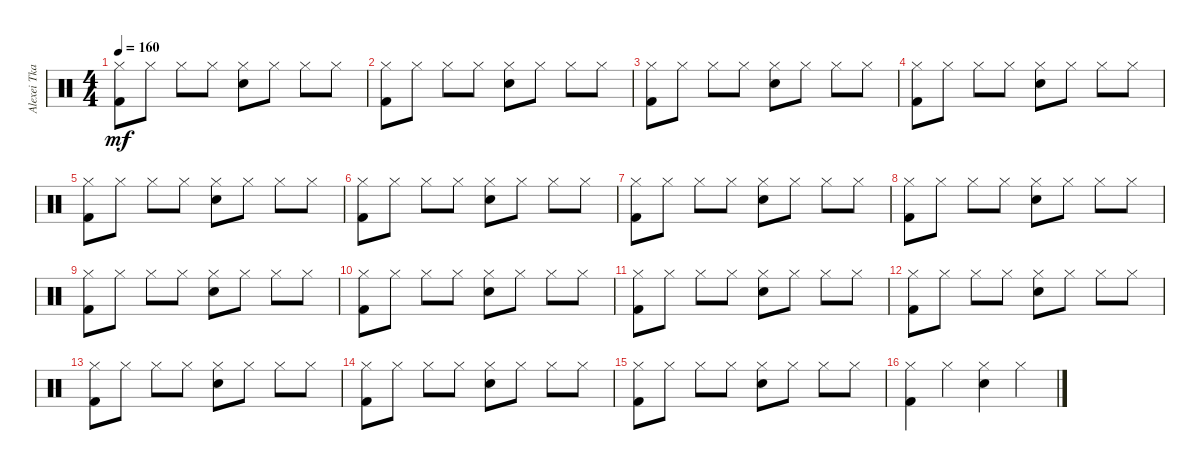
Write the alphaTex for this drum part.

\track ("Alexei Tkachevskiy " "Alexei Tka") {instrument percussion}
\staff {score}
\articulation defaults
\ts (4 4)
\tempo 160
\clef neutral
\ks c
("Hi-Hat (closed)" "Kick (hit) 2").8{dy mf} "Hi-Hat (closed)".8 "Hi-Hat (closed)".8 "Hi-Hat (closed)".8 ("Hi-Hat (closed)" "Snare (hit) 2").8 "Hi-Hat (closed)".8 "Hi-Hat (closed)".8 "Hi-Hat (closed)".8 |
("Hi-Hat (closed)" "Kick (hit) 2").8 "Hi-Hat (closed)".8 "Hi-Hat (closed)".8 "Hi-Hat (closed)".8 ("Hi-Hat (closed)" "Snare (hit) 2").8 "Hi-Hat (closed)".8 "Hi-Hat (closed)".8 "Hi-Hat (closed)".8 |
("Hi-Hat (closed)" "Kick (hit) 2").8 "Hi-Hat (closed)".8 "Hi-Hat (closed)".8 "Hi-Hat (closed)".8 ("Hi-Hat (closed)" "Snare (hit) 2").8 "Hi-Hat (closed)".8 "Hi-Hat (closed)".8 "Hi-Hat (closed)".8 |
("Hi-Hat (closed)" "Kick (hit) 2").8 "Hi-Hat (closed)".8 "Hi-Hat (closed)".8 "Hi-Hat (closed)".8 ("Hi-Hat (closed)" "Snare (hit) 2").8 "Hi-Hat (closed)".8 "Hi-Hat (closed)".8 "Hi-Hat (closed)".8 |
("Hi-Hat (closed)" "Kick (hit) 2").8 "Hi-Hat (closed)".8 "Hi-Hat (closed)".8 "Hi-Hat (closed)".8 ("Hi-Hat (closed)" "Snare (hit) 2").8 "Hi-Hat (closed)".8 "Hi-Hat (closed)".8 "Hi-Hat (closed)".8 |
("Hi-Hat (closed)" "Kick (hit) 2").8 "Hi-Hat (closed)".8 "Hi-Hat (closed)".8 "Hi-Hat (closed)".8 ("Hi-Hat (closed)" "Snare (hit) 2").8 "Hi-Hat (closed)".8 "Hi-Hat (closed)".8 "Hi-Hat (closed)".8 |
("Hi-Hat (closed)" "Kick (hit) 2").8 "Hi-Hat (closed)".8 "Hi-Hat (closed)".8 "Hi-Hat (closed)".8 ("Hi-Hat (closed)" "Snare (hit) 2").8 "Hi-Hat (closed)".8 "Hi-Hat (closed)".8 "Hi-Hat (closed)".8 |
("Hi-Hat (closed)" "Kick (hit) 2").8 "Hi-Hat (closed)".8 "Hi-Hat (closed)".8 "Hi-Hat (closed)".8 ("Hi-Hat (closed)" "Snare (hit) 2").8 "Hi-Hat (closed)".8 "Hi-Hat (closed)".8 "Hi-Hat (closed)".8 |
("Hi-Hat (closed)" "Kick (hit) 2").8 "Hi-Hat (closed)".8 "Hi-Hat (closed)".8 "Hi-Hat (closed)".8 ("Hi-Hat (closed)" "Snare (hit) 2").8 "Hi-Hat (closed)".8 "Hi-Hat (closed)".8 "Hi-Hat (closed)".8 |
("Hi-Hat (closed)" "Kick (hit) 2").8 "Hi-Hat (closed)".8 "Hi-Hat (closed)".8 "Hi-Hat (closed)".8 ("Hi-Hat (closed)" "Snare (hit) 2").8 "Hi-Hat (closed)".8 "Hi-Hat (closed)".8 "Hi-Hat (closed)".8 |
("Hi-Hat (closed)" "Kick (hit) 2").8 "Hi-Hat (closed)".8 "Hi-Hat (closed)".8 "Hi-Hat (closed)".8 ("Hi-Hat (closed)" "Snare (hit) 2").8 "Hi-Hat (closed)".8 "Hi-Hat (closed)".8 "Hi-Hat (closed)".8 |
("Hi-Hat (closed)" "Kick (hit) 2").8 "Hi-Hat (closed)".8 "Hi-Hat (closed)".8 "Hi-Hat (closed)".8 ("Hi-Hat (closed)" "Snare (hit) 2").8 "Hi-Hat (closed)".8 "Hi-Hat (closed)".8 "Hi-Hat (closed)".8 |
("Hi-Hat (closed)" "Kick (hit) 2").8 "Hi-Hat (closed)".8 "Hi-Hat (closed)".8 "Hi-Hat (closed)".8 ("Hi-Hat (closed)" "Snare (hit) 2").8 "Hi-Hat (closed)".8 "Hi-Hat (closed)".8 "Hi-Hat (closed)".8 |
("Hi-Hat (closed)" "Kick (hit) 2").8 "Hi-Hat (closed)".8 "Hi-Hat (closed)".8 "Hi-Hat (closed)".8 ("Hi-Hat (closed)" "Snare (hit) 2").8 "Hi-Hat (closed)".8 "Hi-Hat (closed)".8 "Hi-Hat (closed)".8 |
("Hi-Hat (closed)" "Kick (hit) 2").8 "Hi-Hat (closed)".8 "Hi-Hat (closed)".8 "Hi-Hat (closed)".8 ("Hi-Hat (closed)" "Snare (hit) 2").8 "Hi-Hat (closed)".8 "Hi-Hat (closed)".8 "Hi-Hat (closed)".8 |
("Hi-Hat (closed)" "Kick (hit) 2").4 "Hi-Hat (closed)".4 ("Hi-Hat (closed)" "Snare (hit) 2").4 "Hi-Hat (closed)".4
